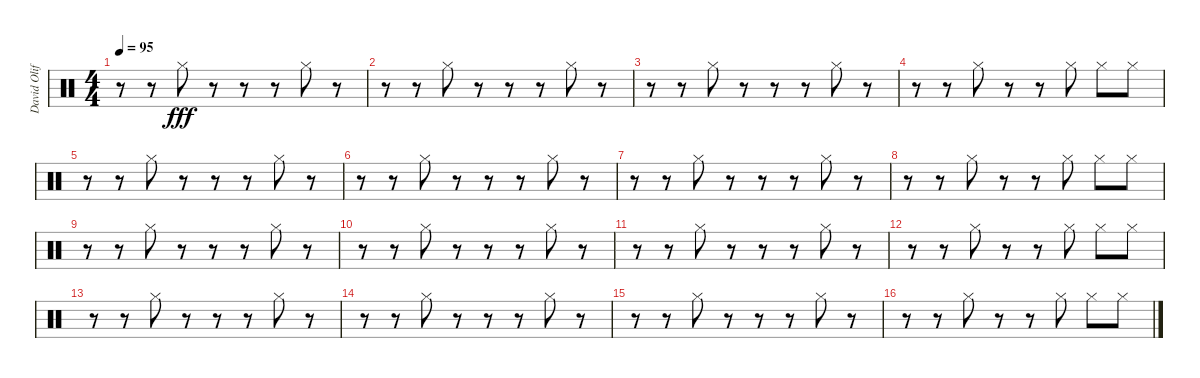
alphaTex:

\track ("David Oliffe" "David Olif") {instrument percussion}
\staff {score}
\articulation defaults
\ts (4 4)
\tempo 95
\clef neutral
\ks c
r.8{dy fff} r.8 "Hi-Hat (closed)".8 r.8 r.8 r.8 "Hi-Hat (closed)".8 r.8 |
r.8 r.8 "Hi-Hat (closed)".8 r.8 r.8 r.8 "Hi-Hat (closed)".8 r.8 |
r.8 r.8 "Hi-Hat (closed)".8 r.8 r.8 r.8 "Hi-Hat (closed)".8 r.8 |
r.8 r.8 "Hi-Hat (closed)".8 r.8 r.8 "Hi-Hat (closed)".8 "Hi-Hat (closed)".8 "Hi-Hat (closed)".8 |
r.8 r.8 "Hi-Hat (closed)".8 r.8 r.8 r.8 "Hi-Hat (closed)".8 r.8 |
r.8 r.8 "Hi-Hat (closed)".8 r.8 r.8 r.8 "Hi-Hat (closed)".8 r.8 |
r.8 r.8 "Hi-Hat (closed)".8 r.8 r.8 r.8 "Hi-Hat (closed)".8 r.8 |
r.8 r.8 "Hi-Hat (closed)".8 r.8 r.8 "Hi-Hat (closed)".8 "Hi-Hat (closed)".8 "Hi-Hat (closed)".8 |
r.8 r.8 "Hi-Hat (closed)".8 r.8 r.8 r.8 "Hi-Hat (closed)".8 r.8 |
r.8 r.8 "Hi-Hat (closed)".8 r.8 r.8 r.8 "Hi-Hat (closed)".8 r.8 |
r.8 r.8 "Hi-Hat (closed)".8 r.8 r.8 r.8 "Hi-Hat (closed)".8 r.8 |
r.8 r.8 "Hi-Hat (closed)".8 r.8 r.8 "Hi-Hat (closed)".8 "Hi-Hat (closed)".8 "Hi-Hat (closed)".8 |
r.8 r.8 "Hi-Hat (closed)".8 r.8 r.8 r.8 "Hi-Hat (closed)".8 r.8 |
r.8 r.8 "Hi-Hat (closed)".8 r.8 r.8 r.8 "Hi-Hat (closed)".8 r.8 |
r.8 r.8 "Hi-Hat (closed)".8 r.8 r.8 r.8 "Hi-Hat (closed)".8 r.8 |
r.8 r.8 "Hi-Hat (closed)".8 r.8 r.8 "Hi-Hat (closed)".8 "Hi-Hat (closed)".8 "Hi-Hat (closed)".8
